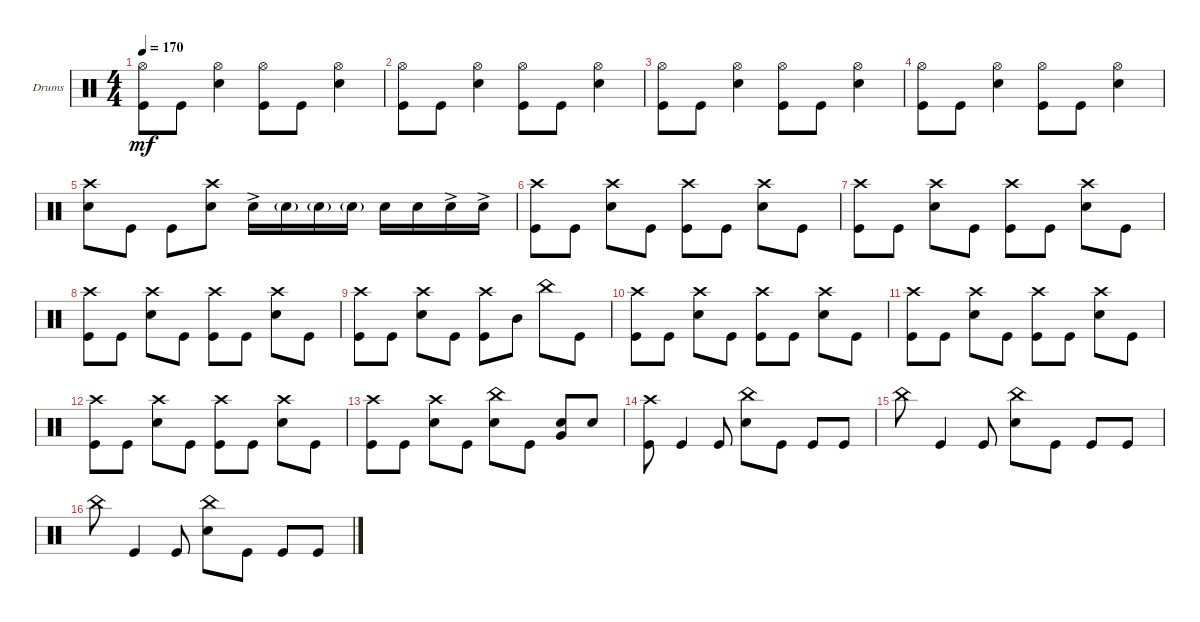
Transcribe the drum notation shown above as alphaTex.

\defaultSystemsLayout 4
\bracketExtendMode groupsimilarinstruments
\firstSystemTrackNameOrientation horizontal
\otherSystemsTrackNameOrientation horizontal
\track ("Drumkit" "Drums") {instrument percussion}
\staff {score}
\articulation defaults
\ts (4 4)
\tempo 170
\clef neutral
\ks c
("Kick (hit)" "Hi-Hat (open)").8{dy mf} "Kick (hit)".8 ("Snare (hit) 2" "Hi-Hat (open)").4 ("Kick (hit)" "Hi-Hat (open)").8 "Kick (hit)".8 ("Snare (hit) 2" "Hi-Hat (open)").4 |
("Kick (hit)" "Hi-Hat (open)").8 "Kick (hit)".8 ("Snare (hit) 2" "Hi-Hat (open)").4 ("Kick (hit)" "Hi-Hat (open)").8 "Kick (hit)".8 ("Snare (hit) 2" "Hi-Hat (open)").4 |
("Kick (hit)" "Hi-Hat (open)").8 "Kick (hit)".8 ("Snare (hit) 2" "Hi-Hat (open)").4 ("Kick (hit)" "Hi-Hat (open)").8 "Kick (hit)".8 ("Snare (hit) 2" "Hi-Hat (open)").4 |
("Kick (hit)" "Hi-Hat (open)").8 "Kick (hit)".8 ("Snare (hit) 2" "Hi-Hat (open)").4 ("Kick (hit)" "Hi-Hat (open)").8 "Kick (hit)".8 ("Snare (hit) 2" "Hi-Hat (open)").4 |
("Crash high (hit)" "Snare (hit) 2").8 "Kick (hit)".8 "Kick (hit)".8 ("Snare (hit) 2" "Crash high (hit)").8 "Snare (hit) 2"{ac}.16 "Snare (hit) 2"{g}.16 "Snare (hit) 2"{g}.16 "Snare (hit) 2"{g}.16 "Snare (hit) 2".16 "Snare (hit) 2".16 "Snare (hit) 2"{ac}.16 "Snare (hit) 2"{ac}.16 |
("Kick (hit)" "Crash high (hit)").8 "Kick (hit)".8 ("Snare (hit) 2" "Crash high (hit)").8 "Kick (hit)".8 ("Kick (hit)" "Crash high (hit)").8 "Kick (hit)".8 ("Snare (hit) 2" "Crash high (hit)").8 "Kick (hit)".8 |
("Kick (hit)" "Crash high (hit)").8 "Kick (hit)".8 ("Snare (hit) 2" "Crash high (hit)").8 "Kick (hit)".8 ("Kick (hit)" "Crash high (hit)").8 "Kick (hit)".8 ("Snare (hit) 2" "Crash high (hit)").8 "Kick (hit)".8 |
("Kick (hit)" "Crash high (hit)").8 "Kick (hit)".8 ("Snare (hit) 2" "Crash high (hit)").8 "Kick (hit)".8 ("Kick (hit)" "Crash high (hit)").8 "Kick (hit)".8 ("Snare (hit) 2" "Crash high (hit)").8 "Kick (hit)".8 |
("Kick (hit)" "Crash high (hit)").8 "Kick (hit)".8 ("Snare (hit) 2" "Crash high (hit)").8 "Kick (hit)".8 ("Kick (hit)" "Crash high (hit)").8 "Mid Tom (hit)".8 "China (hit)".8 "Kick (hit)".8 |
("Kick (hit)" "Crash high (hit)").8 "Kick (hit)".8 ("Snare (hit) 2" "Crash high (hit)").8 "Kick (hit)".8 ("Kick (hit)" "Crash high (hit)").8 "Kick (hit)".8 ("Snare (hit) 2" "Crash high (hit)").8 "Kick (hit)".8 |
("Kick (hit)" "Crash high (hit)").8 "Kick (hit)".8 ("Snare (hit) 2" "Crash high (hit)").8 "Kick (hit)".8 ("Kick (hit)" "Crash high (hit)").8 "Kick (hit)".8 ("Snare (hit) 2" "Crash high (hit)").8 "Kick (hit)".8 |
("Kick (hit)" "Crash high (hit)").8 "Kick (hit)".8 ("Snare (hit) 2" "Crash high (hit)").8 "Kick (hit)".8 ("Kick (hit)" "Crash high (hit)").8 "Kick (hit)".8 ("Snare (hit) 2" "Crash high (hit)").8 "Kick (hit)".8 |
("Kick (hit)" "Crash high (hit)").8 "Kick (hit)".8 ("Snare (hit) 2" "Crash high (hit)").8 "Kick (hit)".8 ("Snare (hit) 2" "China (hit)").8 "Kick (hit)".8 ("Snare (hit) 2" "Very Low Tom (hit)").8 "Snare (hit) 2".8 |
("Kick (hit)" "Crash high (hit)").8 "Kick (hit)".4 "Kick (hit)".8 ("Snare (hit) 2" "China (hit)").8 "Kick (hit)".8 "Kick (hit)".8 "Kick (hit)".8 |
"China (hit)".8 "Kick (hit)".4 "Kick (hit)".8 ("Snare (hit) 2" "China (hit)").8 "Kick (hit)".8 "Kick (hit)".8 "Kick (hit)".8 |
"China (hit)".8 "Kick (hit)".4 "Kick (hit)".8 ("Snare (hit) 2" "China (hit)").8 "Kick (hit)".8 "Kick (hit)".8 "Kick (hit)".8
